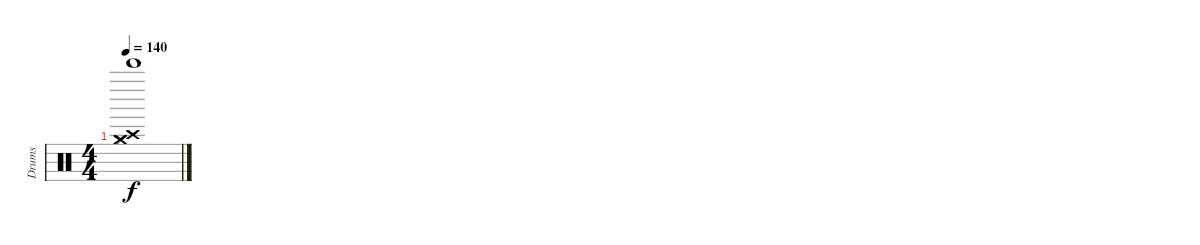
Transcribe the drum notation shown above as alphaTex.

\track ("Drums" "Drums") {instrument percussion}
\staff {score}
\articulation defaults
\ts (4 4)
\tempo 140
\clef neutral
\ks c
("Crash high (hit)" "Crash medium (hit)" "Hi-Hat (closed)" "Bell Tree (hit)").1{dy f}
